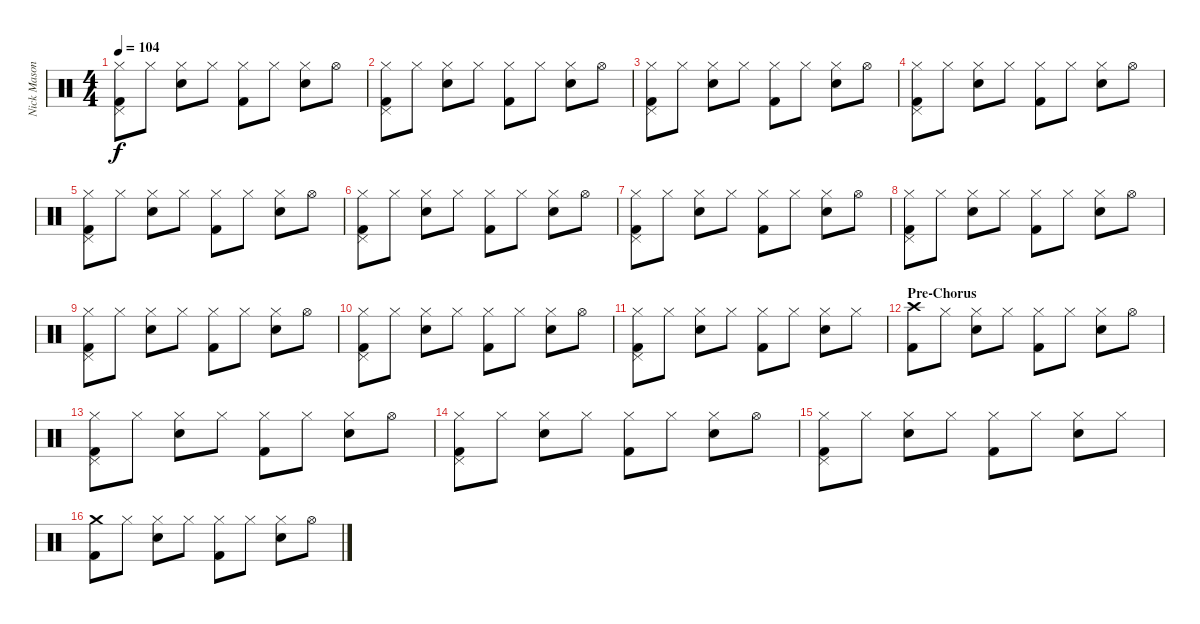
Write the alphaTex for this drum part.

\track ("Nick Mason | Ludwig Drumkit | Drums" "Nick Mason") {instrument percussion}
\staff {score}
\articulation defaults
\ts (4 4)
\tempo 104
\clef neutral
\ks c
("Hi-Hat (closed)" "Kick (hit) 2" "Pedal Hi-Hat (hit)").8{dy f} "Hi-Hat (closed)".8 ("Hi-Hat (closed)" "Snare (hit) 2").8 "Hi-Hat (closed)".8 ("Hi-Hat (closed)" "Kick (hit) 2").8 "Hi-Hat (closed)".8 ("Hi-Hat (closed)" "Snare (hit) 2").8 "Hi-Hat (open)".8 |
("Hi-Hat (closed)" "Kick (hit) 2" "Pedal Hi-Hat (hit)").8 "Hi-Hat (closed)".8 ("Hi-Hat (closed)" "Snare (hit) 2").8 "Hi-Hat (closed)".8 ("Hi-Hat (closed)" "Kick (hit) 2").8 "Hi-Hat (closed)".8 ("Hi-Hat (closed)" "Snare (hit) 2").8 "Hi-Hat (open)".8 |
("Hi-Hat (closed)" "Kick (hit) 2" "Pedal Hi-Hat (hit)").8 "Hi-Hat (closed)".8 ("Hi-Hat (closed)" "Snare (hit) 2").8 "Hi-Hat (closed)".8 ("Hi-Hat (closed)" "Kick (hit) 2").8 "Hi-Hat (closed)".8 ("Hi-Hat (closed)" "Snare (hit) 2").8 "Hi-Hat (open)".8 |
("Hi-Hat (closed)" "Kick (hit) 2" "Pedal Hi-Hat (hit)").8 "Hi-Hat (closed)".8 ("Hi-Hat (closed)" "Snare (hit) 2").8 "Hi-Hat (closed)".8 ("Hi-Hat (closed)" "Kick (hit) 2").8 "Hi-Hat (closed)".8 ("Hi-Hat (closed)" "Snare (hit) 2").8 "Hi-Hat (open)".8 |
("Hi-Hat (closed)" "Kick (hit) 2" "Pedal Hi-Hat (hit)").8 "Hi-Hat (closed)".8 ("Hi-Hat (closed)" "Snare (hit) 2").8 "Hi-Hat (closed)".8 ("Hi-Hat (closed)" "Kick (hit) 2").8 "Hi-Hat (closed)".8 ("Hi-Hat (closed)" "Snare (hit) 2").8 "Hi-Hat (open)".8 |
("Hi-Hat (closed)" "Kick (hit) 2" "Pedal Hi-Hat (hit)").8 "Hi-Hat (closed)".8 ("Hi-Hat (closed)" "Snare (hit) 2").8 "Hi-Hat (closed)".8 ("Hi-Hat (closed)" "Kick (hit) 2").8 "Hi-Hat (closed)".8 ("Hi-Hat (closed)" "Snare (hit) 2").8 "Hi-Hat (open)".8 |
("Hi-Hat (closed)" "Kick (hit) 2" "Pedal Hi-Hat (hit)").8 "Hi-Hat (closed)".8 ("Hi-Hat (closed)" "Snare (hit) 2").8 "Hi-Hat (closed)".8 ("Hi-Hat (closed)" "Kick (hit) 2").8 "Hi-Hat (closed)".8 ("Hi-Hat (closed)" "Snare (hit) 2").8 "Hi-Hat (open)".8 |
("Hi-Hat (closed)" "Kick (hit) 2" "Pedal Hi-Hat (hit)").8 "Hi-Hat (closed)".8 ("Hi-Hat (closed)" "Snare (hit) 2").8 "Hi-Hat (closed)".8 ("Hi-Hat (closed)" "Kick (hit) 2").8 "Hi-Hat (closed)".8 ("Hi-Hat (closed)" "Snare (hit) 2").8 "Hi-Hat (open)".8 |
("Hi-Hat (closed)" "Kick (hit) 2" "Pedal Hi-Hat (hit)").8 "Hi-Hat (closed)".8 ("Hi-Hat (closed)" "Snare (hit) 2").8 "Hi-Hat (closed)".8 ("Hi-Hat (closed)" "Kick (hit) 2").8 "Hi-Hat (closed)".8 ("Hi-Hat (closed)" "Snare (hit) 2").8 "Hi-Hat (open)".8 |
("Hi-Hat (closed)" "Kick (hit) 2" "Pedal Hi-Hat (hit)").8 "Hi-Hat (closed)".8 ("Hi-Hat (closed)" "Snare (hit) 2").8 "Hi-Hat (closed)".8 ("Hi-Hat (closed)" "Kick (hit) 2").8 "Hi-Hat (closed)".8 ("Hi-Hat (closed)" "Snare (hit) 2").8 "Hi-Hat (open)".8 |
("Hi-Hat (closed)" "Kick (hit) 2" "Pedal Hi-Hat (hit)").8 "Hi-Hat (closed)".8 ("Hi-Hat (closed)" "Snare (hit) 2").8 "Hi-Hat (closed)".8 ("Hi-Hat (closed)" "Kick (hit) 2").8 "Hi-Hat (closed)".8 ("Hi-Hat (closed)" "Snare (hit) 2").8 "Hi-Hat (closed)".8 |
\section ("" "Pre-Chorus")
("Crash high (hit)" "Kick (hit) 2").8 "Hi-Hat (closed)".8 ("Hi-Hat (closed)" "Snare (hit) 2").8 "Hi-Hat (closed)".8 ("Hi-Hat (closed)" "Kick (hit) 2").8 "Hi-Hat (closed)".8 ("Hi-Hat (closed)" "Snare (hit) 2").8 "Hi-Hat (open)".8 |
("Hi-Hat (closed)" "Kick (hit) 2" "Pedal Hi-Hat (hit)").8 "Hi-Hat (closed)".8 ("Hi-Hat (closed)" "Snare (hit) 2").8 "Hi-Hat (closed)".8 ("Hi-Hat (closed)" "Kick (hit) 2").8 "Hi-Hat (closed)".8 ("Hi-Hat (closed)" "Snare (hit) 2").8 "Hi-Hat (open)".8 |
("Hi-Hat (closed)" "Kick (hit) 2" "Pedal Hi-Hat (hit)").8 "Hi-Hat (closed)".8 ("Hi-Hat (closed)" "Snare (hit) 2").8 "Hi-Hat (closed)".8 ("Hi-Hat (closed)" "Kick (hit) 2").8 "Hi-Hat (closed)".8 ("Hi-Hat (closed)" "Snare (hit) 2").8 "Hi-Hat (open)".8 |
("Hi-Hat (closed)" "Kick (hit) 2" "Pedal Hi-Hat (hit)").8 "Hi-Hat (closed)".8 ("Hi-Hat (closed)" "Snare (hit) 2").8 "Hi-Hat (closed)".8 ("Hi-Hat (closed)" "Kick (hit) 2").8 "Hi-Hat (closed)".8 ("Hi-Hat (closed)" "Snare (hit) 2").8 "Hi-Hat (closed)".8 |
("Crash medium (hit)" "Kick (hit) 2").8 "Hi-Hat (closed)".8 ("Hi-Hat (closed)" "Snare (hit) 2").8 "Hi-Hat (closed)".8 ("Hi-Hat (closed)" "Kick (hit) 2").8 "Hi-Hat (closed)".8 ("Hi-Hat (closed)" "Snare (hit) 2").8 "Hi-Hat (open)".8
